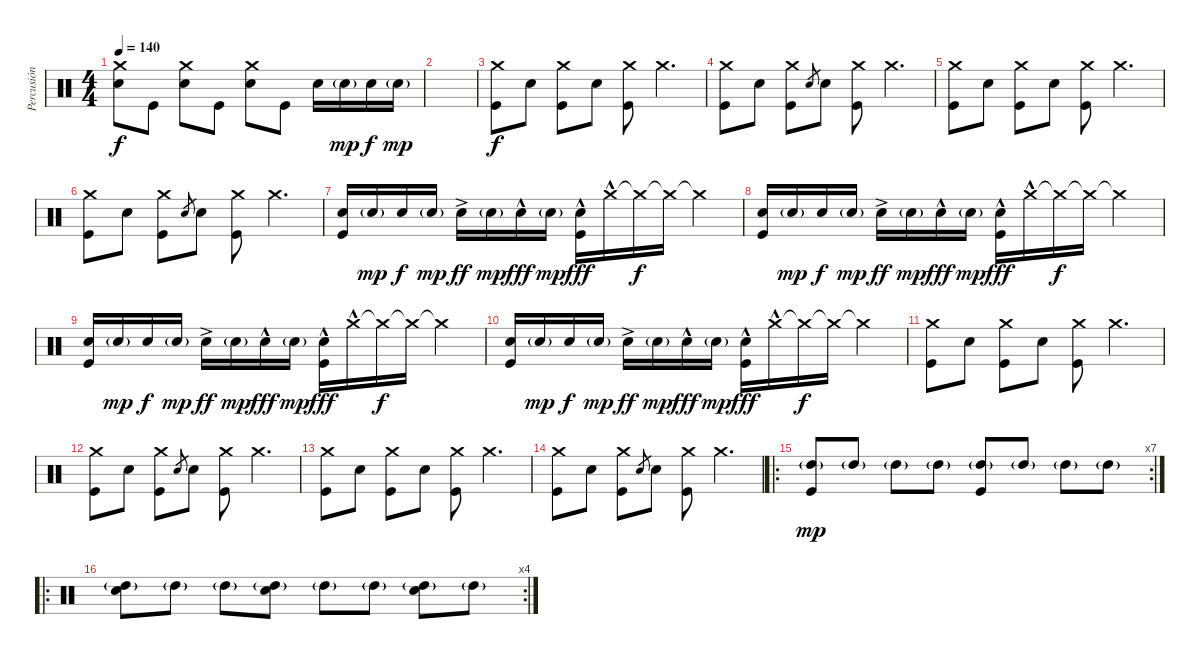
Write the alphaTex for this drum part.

\track ("Percusión" "Percusión") {instrument percussion}
\staff {score}
\articulation defaults
\ts (4 4)
\tempo 140
\clef neutral
\ks c
("Crash medium (hit)" "Electric Snare (hit)").8{dy f} "Kick (hit)".8 ("Crash medium (hit)" "Electric Snare (hit)").8 "Kick (hit)".8 ("Crash medium (hit)" "Electric Snare (hit)").8 "Kick (hit)".8 "Electric Snare (hit)".16 "Electric Snare (hit)"{g}.16{dy mp} "Electric Snare (hit)".16{dy f} "Electric Snare (hit)"{g}.16{dy mp} |
|
("Crash medium (hit)" "Kick (hit)").8{dy f} "Electric Snare (hit)".8 ("Crash medium (hit)" "Kick (hit)").8 "Electric Snare (hit)".8 ("Crash medium (hit)" "Kick (hit)").8 "Crash medium (hit)".4{d} |
("Crash medium (hit)" "Kick (hit)").8 "Electric Snare (hit)".8 ("Crash medium (hit)" "Kick (hit)").8 "Electric Snare (hit)".8{gr} "Electric Snare (hit)".8 ("Crash medium (hit)" "Kick (hit)").8 "Crash medium (hit)".4{d} |
("Crash medium (hit)" "Kick (hit)").8 "Electric Snare (hit)".8 ("Crash medium (hit)" "Kick (hit)").8 "Electric Snare (hit)".8 ("Crash medium (hit)" "Kick (hit)").8 "Crash medium (hit)".4{d} |
("Crash medium (hit)" "Kick (hit)").8 "Electric Snare (hit)".8 ("Crash medium (hit)" "Kick (hit)").8 "Electric Snare (hit)".8{gr} "Electric Snare (hit)".8 ("Crash medium (hit)" "Kick (hit)").8 "Crash medium (hit)".4{d} |
("Electric Snare (hit)" "Kick (hit)").16 "Electric Snare (hit)"{g}.16{dy mp} "Electric Snare (hit)".16{dy f} "Electric Snare (hit)"{g}.16{dy mp} "Electric Snare (hit)"{ac}.16{dy ff} "Electric Snare (hit)"{g}.16{dy mp} "Electric Snare (hit)"{hac}.16{dy fff} "Electric Snare (hit)"{g}.16{dy mp} ("Electric Snare (hit)"{hac} "Kick (hit)").16{dy fff} "Crash medium (hit)"{hac}.16 "Crash medium (hit)"{t}.16{dy f} "Crash medium (hit)"{t}.16 "Crash medium (hit)"{t}.4 |
("Electric Snare (hit)" "Kick (hit)").16 "Electric Snare (hit)"{g}.16{dy mp} "Electric Snare (hit)".16{dy f} "Electric Snare (hit)"{g}.16{dy mp} "Electric Snare (hit)"{ac}.16{dy ff} "Electric Snare (hit)"{g}.16{dy mp} "Electric Snare (hit)"{hac}.16{dy fff} "Electric Snare (hit)"{g}.16{dy mp} ("Electric Snare (hit)"{hac} "Kick (hit)").16{dy fff} "Crash medium (hit)"{hac}.16 "Crash medium (hit)"{t}.16{dy f} "Crash medium (hit)"{t}.16 "Crash medium (hit)"{t}.4 |
("Electric Snare (hit)" "Kick (hit)").16 "Electric Snare (hit)"{g}.16{dy mp} "Electric Snare (hit)".16{dy f} "Electric Snare (hit)"{g}.16{dy mp} "Electric Snare (hit)"{ac}.16{dy ff} "Electric Snare (hit)"{g}.16{dy mp} "Electric Snare (hit)"{hac}.16{dy fff} "Electric Snare (hit)"{g}.16{dy mp} ("Electric Snare (hit)"{hac} "Kick (hit)").16{dy fff} "Crash medium (hit)"{hac}.16 "Crash medium (hit)"{t}.16{dy f} "Crash medium (hit)"{t}.16 "Crash medium (hit)"{t}.4 |
("Electric Snare (hit)" "Kick (hit)").16 "Electric Snare (hit)"{g}.16{dy mp} "Electric Snare (hit)".16{dy f} "Electric Snare (hit)"{g}.16{dy mp} "Electric Snare (hit)"{ac}.16{dy ff} "Electric Snare (hit)"{g}.16{dy mp} "Electric Snare (hit)"{hac}.16{dy fff} "Electric Snare (hit)"{g}.16{dy mp} ("Electric Snare (hit)"{hac} "Kick (hit)").16{dy fff} "Crash medium (hit)"{hac}.16 "Crash medium (hit)"{t}.16{dy f} "Crash medium (hit)"{t}.16 "Crash medium (hit)"{t}.4 |
("Crash medium (hit)" "Kick (hit)").8 "Electric Snare (hit)".8 ("Crash medium (hit)" "Kick (hit)").8 "Electric Snare (hit)".8 ("Crash medium (hit)" "Kick (hit)").8 "Crash medium (hit)".4{d} |
("Crash medium (hit)" "Kick (hit)").8 "Electric Snare (hit)".8 ("Crash medium (hit)" "Kick (hit)").8 "Electric Snare (hit)".8{gr} "Electric Snare (hit)".8 ("Crash medium (hit)" "Kick (hit)").8 "Crash medium (hit)".4{d} |
("Crash medium (hit)" "Kick (hit)").8 "Electric Snare (hit)".8 ("Crash medium (hit)" "Kick (hit)").8 "Electric Snare (hit)".8 ("Crash medium (hit)" "Kick (hit)").8 "Crash medium (hit)".4{d} |
("Crash medium (hit)" "Kick (hit)").8 "Electric Snare (hit)".8 ("Crash medium (hit)" "Kick (hit)").8 "Electric Snare (hit)".8{gr} "Electric Snare (hit)".8 ("Crash medium (hit)" "Kick (hit)").8 "Crash medium (hit)".4{d} |
\ro
\rc 7
("High Tom (hit)"{g} "Kick (hit)").8{dy mp} "High Tom (hit)"{g}.8 "High Tom (hit)"{g}.8 "High Tom (hit)"{g}.8 ("High Tom (hit)"{g} "Kick (hit)").8 "High Tom (hit)"{g}.8 "High Tom (hit)"{g}.8 "High Tom (hit)"{g}.8 |
\ro
\rc 4
("Electric Snare (hit)" "High Tom (hit)"{g}).8 "High Tom (hit)"{g}.8 "High Tom (hit)"{g}.8 ("Electric Snare (hit)" "High Tom (hit)"{g}).8 "High Tom (hit)"{g}.8 "High Tom (hit)"{g}.8 ("Electric Snare (hit)" "High Tom (hit)"{g}).8 "High Tom (hit)"{g}.8
